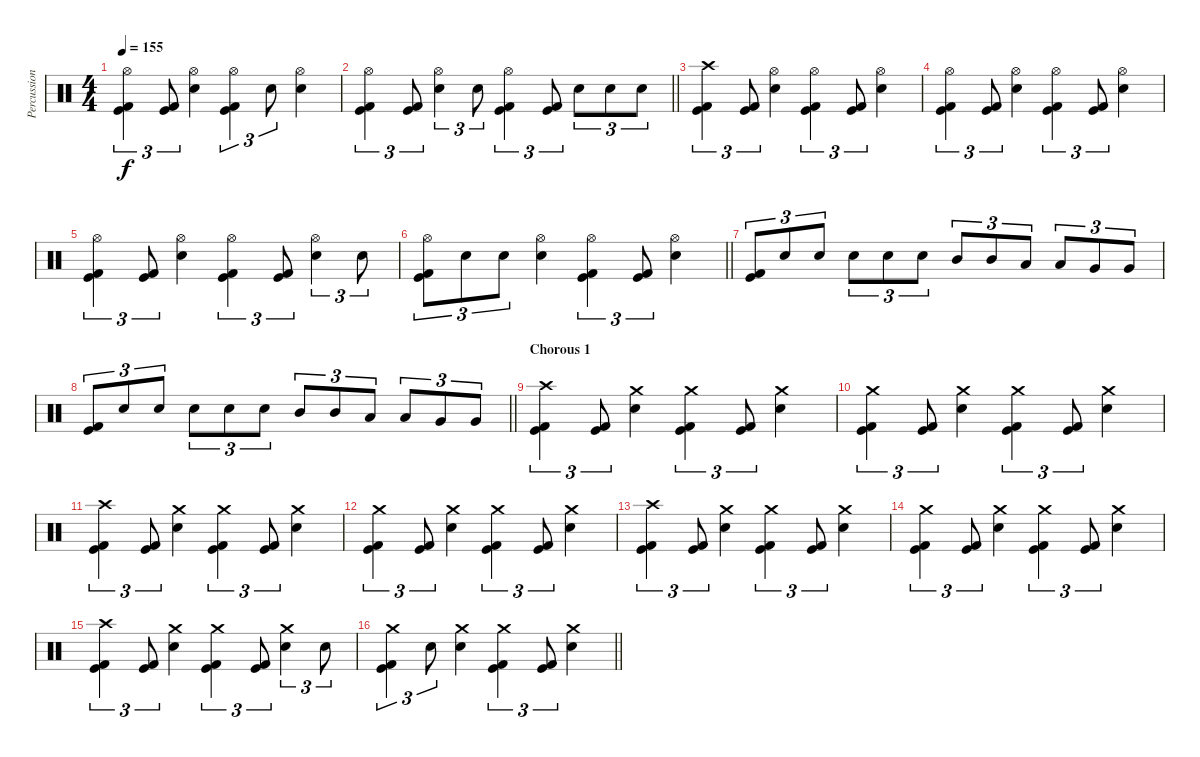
\track ("Percussion" "Percussion") {instrument percussion}
\staff {score}
\articulation defaults
\ts (4 4)
\tempo 155
\clef neutral
\ks c
("Hi-Hat (open)" "Kick (hit)" "Kick (hit) 2").4{tu (3 2) dy f} ("Kick (hit)" "Kick (hit) 2").8{tu (3 2)} ("Hi-Hat (open)" "Electric Snare (hit)").4 ("Hi-Hat (open)" "Kick (hit)" "Kick (hit) 2").4{tu (3 2)} "Electric Snare (hit)".8{tu (3 2)} ("Hi-Hat (open)" "Electric Snare (hit)").4 |
\barLineRight lightlight
("Hi-Hat (open)" "Kick (hit)" "Kick (hit) 2").4{tu (3 2)} ("Kick (hit)" "Kick (hit) 2").8{tu (3 2)} ("Hi-Hat (open)" "Electric Snare (hit)").4{tu (3 2)} "Electric Snare (hit)".8{tu (3 2)} ("Hi-Hat (open)" "Kick (hit)" "Kick (hit) 2").4{tu (3 2)} ("Kick (hit)" "Kick (hit) 2").8{tu (3 2)} "Electric Snare (hit)".8{tu (3 2)} "Electric Snare (hit)".8{tu (3 2)} "Electric Snare (hit)".8{tu (3 2)} |
\section ("" "")
("Crash high (hit)" "Kick (hit)" "Kick (hit) 2").4{tu (3 2)} ("Kick (hit)" "Kick (hit) 2").8{tu (3 2)} ("Hi-Hat (open)" "Electric Snare (hit)").4 ("Hi-Hat (open)" "Kick (hit)" "Kick (hit) 2").4{tu (3 2)} ("Kick (hit)" "Kick (hit) 2").8{tu (3 2)} ("Hi-Hat (open)" "Electric Snare (hit)").4 |
("Hi-Hat (open)" "Kick (hit)" "Kick (hit) 2").4{tu (3 2)} ("Kick (hit)" "Kick (hit) 2").8{tu (3 2)} ("Hi-Hat (open)" "Electric Snare (hit)").4 ("Hi-Hat (open)" "Kick (hit)" "Kick (hit) 2").4{tu (3 2)} ("Kick (hit)" "Kick (hit) 2").8{tu (3 2)} ("Hi-Hat (open)" "Electric Snare (hit)").4 |
("Hi-Hat (open)" "Kick (hit)" "Kick (hit) 2").4{tu (3 2)} ("Kick (hit)" "Kick (hit) 2").8{tu (3 2)} ("Hi-Hat (open)" "Electric Snare (hit)").4 ("Hi-Hat (open)" "Kick (hit)" "Kick (hit) 2").4{tu (3 2)} ("Kick (hit)" "Kick (hit) 2").8{tu (3 2)} ("Hi-Hat (open)" "Electric Snare (hit)").4{tu (3 2)} "Electric Snare (hit)".8{tu (3 2)} |
\barLineRight lightlight
("Hi-Hat (open)" "Kick (hit)" "Kick (hit) 2").8{tu (3 2)} "Electric Snare (hit)".8{tu (3 2)} "Electric Snare (hit)".8{tu (3 2)} ("Hi-Hat (open)" "Electric Snare (hit)").4 ("Hi-Hat (open)" "Kick (hit)" "Kick (hit) 2").4{tu (3 2)} ("Kick (hit)" "Kick (hit) 2").8{tu (3 2)} ("Hi-Hat (open)" "Electric Snare (hit)").4 |
\section ("" "")
("Kick (hit)" "Kick (hit) 2").8{tu (3 2)} "Electric Snare (hit)".8{tu (3 2)} "Electric Snare (hit)".8{tu (3 2)} "Electric Snare (hit)".8{tu (3 2)} "Electric Snare (hit)".8{tu (3 2)} "Electric Snare (hit)".8{tu (3 2)} "Mid Tom (hit)".8{tu (3 2)} "Mid Tom (hit)".8{tu (3 2)} "Low Tom (hit)".8{tu (3 2)} "Low Tom (hit)".8{tu (3 2)} "Very Low Tom (hit)".8{tu (3 2)} "Very Low Tom (hit)".8{tu (3 2)} |
\barLineRight lightlight
("Kick (hit)" "Kick (hit) 2").8{tu (3 2)} "Electric Snare (hit)".8{tu (3 2)} "Electric Snare (hit)".8{tu (3 2)} "Electric Snare (hit)".8{tu (3 2)} "Electric Snare (hit)".8{tu (3 2)} "Electric Snare (hit)".8{tu (3 2)} "Mid Tom (hit)".8{tu (3 2)} "Mid Tom (hit)".8{tu (3 2)} "Low Tom (hit)".8{tu (3 2)} "Low Tom (hit)".8{tu (3 2)} "Very Low Tom (hit)".8{tu (3 2)} "Very Low Tom (hit)".8{tu (3 2)} |
\section ("" "Chorous 1")
("Crash high (hit)" "Kick (hit)" "Kick (hit) 2").4{tu (3 2)} ("Kick (hit)" "Kick (hit) 2").8{tu (3 2)} ("Crash medium (hit)" "Electric Snare (hit)").4 ("Crash medium (hit)" "Kick (hit)" "Kick (hit) 2").4{tu (3 2)} ("Kick (hit)" "Kick (hit) 2").8{tu (3 2)} ("Crash medium (hit)" "Electric Snare (hit)").4 |
("Crash medium (hit)" "Kick (hit)" "Kick (hit) 2").4{tu (3 2)} ("Kick (hit)" "Kick (hit) 2").8{tu (3 2)} ("Crash medium (hit)" "Electric Snare (hit)").4 ("Crash medium (hit)" "Kick (hit)" "Kick (hit) 2").4{tu (3 2)} ("Kick (hit)" "Kick (hit) 2").8{tu (3 2)} ("Crash medium (hit)" "Electric Snare (hit)").4 |
("Crash high (hit)" "Kick (hit)" "Kick (hit) 2").4{tu (3 2)} ("Kick (hit)" "Kick (hit) 2").8{tu (3 2)} ("Crash medium (hit)" "Electric Snare (hit)").4 ("Crash medium (hit)" "Kick (hit)" "Kick (hit) 2").4{tu (3 2)} ("Kick (hit)" "Kick (hit) 2").8{tu (3 2)} ("Crash medium (hit)" "Electric Snare (hit)").4 |
("Crash medium (hit)" "Kick (hit)" "Kick (hit) 2").4{tu (3 2)} ("Kick (hit)" "Kick (hit) 2").8{tu (3 2)} ("Crash medium (hit)" "Electric Snare (hit)").4 ("Crash medium (hit)" "Kick (hit)" "Kick (hit) 2").4{tu (3 2)} ("Kick (hit)" "Kick (hit) 2").8{tu (3 2)} ("Crash medium (hit)" "Electric Snare (hit)").4 |
("Crash high (hit)" "Kick (hit)" "Kick (hit) 2").4{tu (3 2)} ("Kick (hit)" "Kick (hit) 2").8{tu (3 2)} ("Crash medium (hit)" "Electric Snare (hit)").4 ("Crash medium (hit)" "Kick (hit)" "Kick (hit) 2").4{tu (3 2)} ("Kick (hit)" "Kick (hit) 2").8{tu (3 2)} ("Crash medium (hit)" "Electric Snare (hit)").4 |
("Crash medium (hit)" "Kick (hit)" "Kick (hit) 2").4{tu (3 2)} ("Kick (hit)" "Kick (hit) 2").8{tu (3 2)} ("Crash medium (hit)" "Electric Snare (hit)").4 ("Crash medium (hit)" "Kick (hit)" "Kick (hit) 2").4{tu (3 2)} ("Kick (hit)" "Kick (hit) 2").8{tu (3 2)} ("Crash medium (hit)" "Electric Snare (hit)").4 |
("Crash high (hit)" "Kick (hit)" "Kick (hit) 2").4{tu (3 2)} ("Kick (hit)" "Kick (hit) 2").8{tu (3 2)} ("Crash medium (hit)" "Electric Snare (hit)").4 ("Crash medium (hit)" "Kick (hit)" "Kick (hit) 2").4{tu (3 2)} ("Kick (hit)" "Kick (hit) 2").8{tu (3 2)} ("Crash medium (hit)" "Electric Snare (hit)").4{tu (3 2)} "Electric Snare (hit)".8{tu (3 2)} |
\barLineRight lightlight
("Crash medium (hit)" "Kick (hit)" "Kick (hit) 2").4{tu (3 2)} "Electric Snare (hit)".8{tu (3 2)} ("Crash medium (hit)" "Electric Snare (hit)").4 ("Crash medium (hit)" "Kick (hit)" "Kick (hit) 2").4{tu (3 2)} ("Kick (hit)" "Kick (hit) 2").8{tu (3 2)} ("Crash medium (hit)" "Electric Snare (hit)").4
